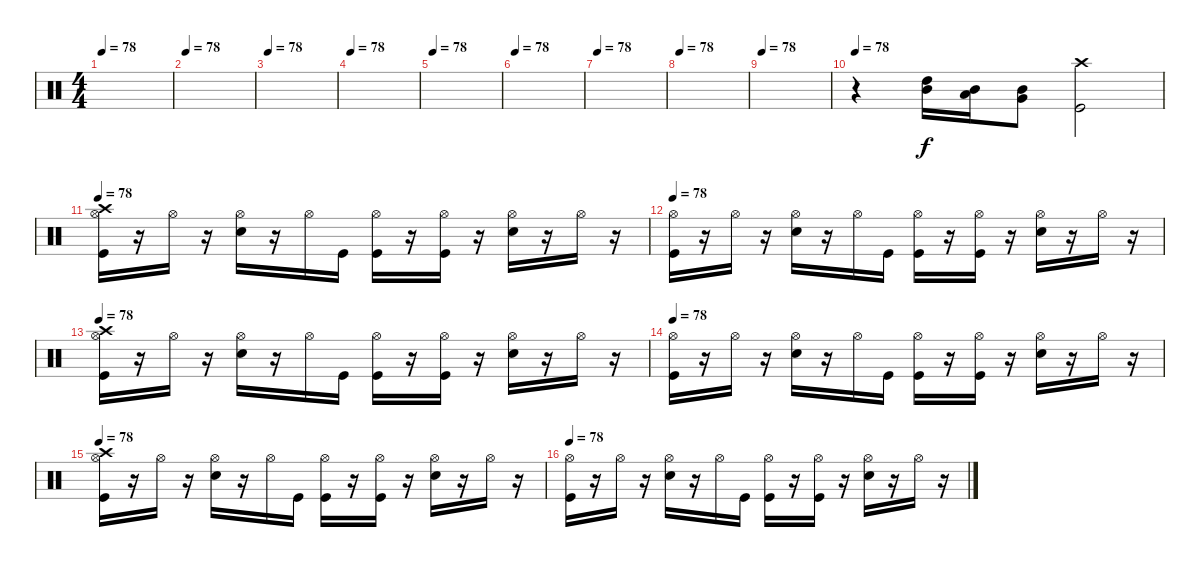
\track "" {instrument percussion}
\staff {score}
\articulation defaults
\ts (4 4)
\tempo 78
\clef neutral
\ks c
|
\tempo 78
|
\tempo 78
|
\tempo 78
|
\tempo 78
|
\tempo 78
|
\tempo 78
|
\tempo 78
|
\tempo 78
|
\tempo 78
r.4 ("High Tom (hit)" "Mid Tom (hit)").16 ("Mid Tom (hit)" "Low Tom (hit)").16 ("Mid Tom (hit)" "Very Low Tom (hit)").8 ("Kick (hit)" "Crash high (hit)").2 |
\tempo 78
("Hi-Hat (open)" "Kick (hit)" "Crash high (hit)").16 r.16 "Hi-Hat (open)".16 r.16 ("Hi-Hat (open)" "Snare (hit) 2").16 r.16 "Hi-Hat (open)".16 "Kick (hit)".16 ("Hi-Hat (open)" "Kick (hit)").16 r.16 ("Hi-Hat (open)" "Kick (hit)").16 r.16 ("Hi-Hat (open)" "Snare (hit) 2").16 r.16 "Hi-Hat (open)".16 r.16 |
\tempo 78
("Hi-Hat (open)" "Kick (hit)").16 r.16 "Hi-Hat (open)".16 r.16 ("Hi-Hat (open)" "Snare (hit) 2").16 r.16 "Hi-Hat (open)".16 "Kick (hit)".16 ("Hi-Hat (open)" "Kick (hit)").16 r.16 ("Hi-Hat (open)" "Kick (hit)").16 r.16 ("Hi-Hat (open)" "Snare (hit) 2").16 r.16 "Hi-Hat (open)".16 r.16 |
\tempo 78
("Hi-Hat (open)" "Kick (hit)" "Crash high (hit)").16 r.16 "Hi-Hat (open)".16 r.16 ("Hi-Hat (open)" "Snare (hit) 2").16 r.16 "Hi-Hat (open)".16 "Kick (hit)".16 ("Hi-Hat (open)" "Kick (hit)").16 r.16 ("Hi-Hat (open)" "Kick (hit)").16 r.16 ("Hi-Hat (open)" "Snare (hit) 2").16 r.16 "Hi-Hat (open)".16 r.16 |
\tempo 78
("Hi-Hat (open)" "Kick (hit)").16 r.16 "Hi-Hat (open)".16 r.16 ("Hi-Hat (open)" "Snare (hit) 2").16 r.16 "Hi-Hat (open)".16 "Kick (hit)".16 ("Hi-Hat (open)" "Kick (hit)").16 r.16 ("Hi-Hat (open)" "Kick (hit)").16 r.16 ("Hi-Hat (open)" "Snare (hit) 2").16 r.16 "Hi-Hat (open)".16 r.16 |
\tempo 78
("Hi-Hat (open)" "Kick (hit)" "Crash high (hit)").16 r.16 "Hi-Hat (open)".16 r.16 ("Hi-Hat (open)" "Snare (hit) 2").16 r.16 "Hi-Hat (open)".16 "Kick (hit)".16 ("Hi-Hat (open)" "Kick (hit)").16 r.16 ("Hi-Hat (open)" "Kick (hit)").16 r.16 ("Hi-Hat (open)" "Snare (hit) 2").16 r.16 "Hi-Hat (open)".16 r.16 |
\tempo 78
("Hi-Hat (open)" "Kick (hit)").16 r.16 "Hi-Hat (open)".16 r.16 ("Hi-Hat (open)" "Snare (hit) 2").16 r.16 "Hi-Hat (open)".16 "Kick (hit)".16 ("Hi-Hat (open)" "Kick (hit)").16 r.16 ("Hi-Hat (open)" "Kick (hit)").16 r.16 ("Hi-Hat (open)" "Snare (hit) 2").16 r.16 "Hi-Hat (open)".16 r.16
